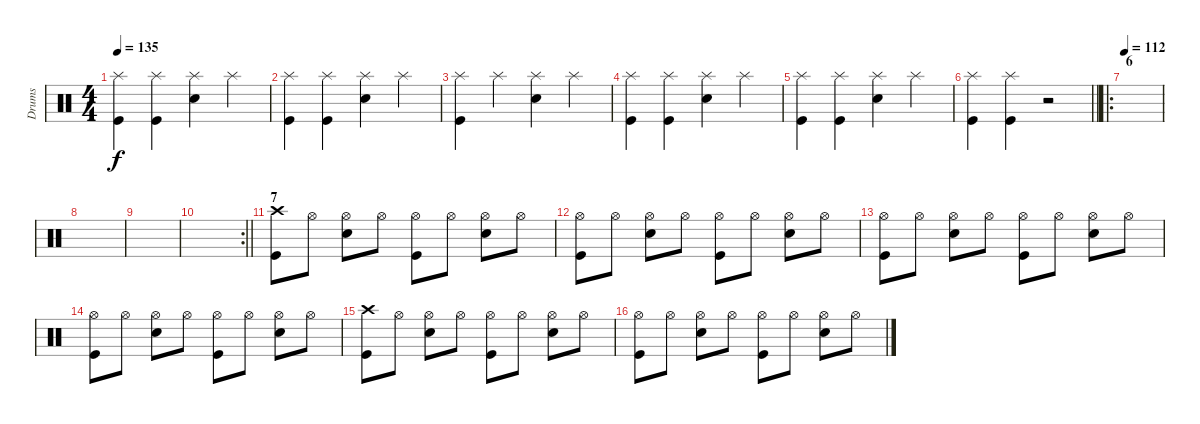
\track ("Drums" "Drums") {instrument percussion}
\staff {score}
\articulation defaults
\ts (4 4)
\tempo 135
\clef neutral
\ks c
("Splash (hit)" "Kick (hit)").4{dy f} ("Splash (hit)" "Kick (hit)").4 ("Splash (hit)" "Electric Snare (hit)").4 "Splash (hit)".4 |
("Splash (hit)" "Kick (hit)").4 ("Splash (hit)" "Kick (hit)").4 ("Splash (hit)" "Electric Snare (hit)").4 "Splash (hit)".4 |
("Splash (hit)" "Kick (hit)").4 "Splash (hit)".4 ("Splash (hit)" "Electric Snare (hit)").4 "Splash (hit)".4 |
("Splash (hit)" "Kick (hit)").4 ("Splash (hit)" "Kick (hit)").4 ("Splash (hit)" "Electric Snare (hit)").4 "Splash (hit)".4 |
("Splash (hit)" "Kick (hit)").4 ("Splash (hit)" "Kick (hit)").4 ("Splash (hit)" "Electric Snare (hit)").4 "Splash (hit)".4 |
\barLineRight lightlight
("Splash (hit)" "Kick (hit)").4 ("Splash (hit)" "Kick (hit)").4 r.2 |
\ro
\section ("" "6")
\tempo 112
|
|
|
\rc 2
\barLineRight lightlight
|
\section ("" "7")
("Crash high (hit)" "Kick (hit)").8 "Hi-Hat (open)".8 ("Hi-Hat (open)" "Electric Snare (hit)").8 "Hi-Hat (open)".8 ("Hi-Hat (open)" "Kick (hit)").8 "Hi-Hat (open)".8 ("Hi-Hat (open)" "Electric Snare (hit)").8 "Hi-Hat (open)".8 |
("Hi-Hat (open)" "Kick (hit)").8 "Hi-Hat (open)".8 ("Hi-Hat (open)" "Electric Snare (hit)").8 "Hi-Hat (open)".8 ("Hi-Hat (open)" "Kick (hit)").8 "Hi-Hat (open)".8 ("Hi-Hat (open)" "Electric Snare (hit)").8 "Hi-Hat (open)".8 |
("Hi-Hat (open)" "Kick (hit)").8 "Hi-Hat (open)".8 ("Hi-Hat (open)" "Electric Snare (hit)").8 "Hi-Hat (open)".8 ("Hi-Hat (open)" "Kick (hit)").8 "Hi-Hat (open)".8 ("Hi-Hat (open)" "Electric Snare (hit)").8 "Hi-Hat (open)".8 |
("Hi-Hat (open)" "Kick (hit)").8 "Hi-Hat (open)".8 ("Hi-Hat (open)" "Electric Snare (hit)").8 "Hi-Hat (open)".8 ("Hi-Hat (open)" "Kick (hit)").8 "Hi-Hat (open)".8 ("Hi-Hat (open)" "Electric Snare (hit)").8 "Hi-Hat (open)".8 |
("Crash high (hit)" "Kick (hit)").8 "Hi-Hat (open)".8 ("Hi-Hat (open)" "Electric Snare (hit)").8 "Hi-Hat (open)".8 ("Hi-Hat (open)" "Kick (hit)").8 "Hi-Hat (open)".8 ("Hi-Hat (open)" "Electric Snare (hit)").8 "Hi-Hat (open)".8 |
("Hi-Hat (open)" "Kick (hit)").8 "Hi-Hat (open)".8 ("Hi-Hat (open)" "Electric Snare (hit)").8 "Hi-Hat (open)".8 ("Hi-Hat (open)" "Kick (hit)").8 "Hi-Hat (open)".8 ("Hi-Hat (open)" "Electric Snare (hit)").8 "Hi-Hat (open)".8
